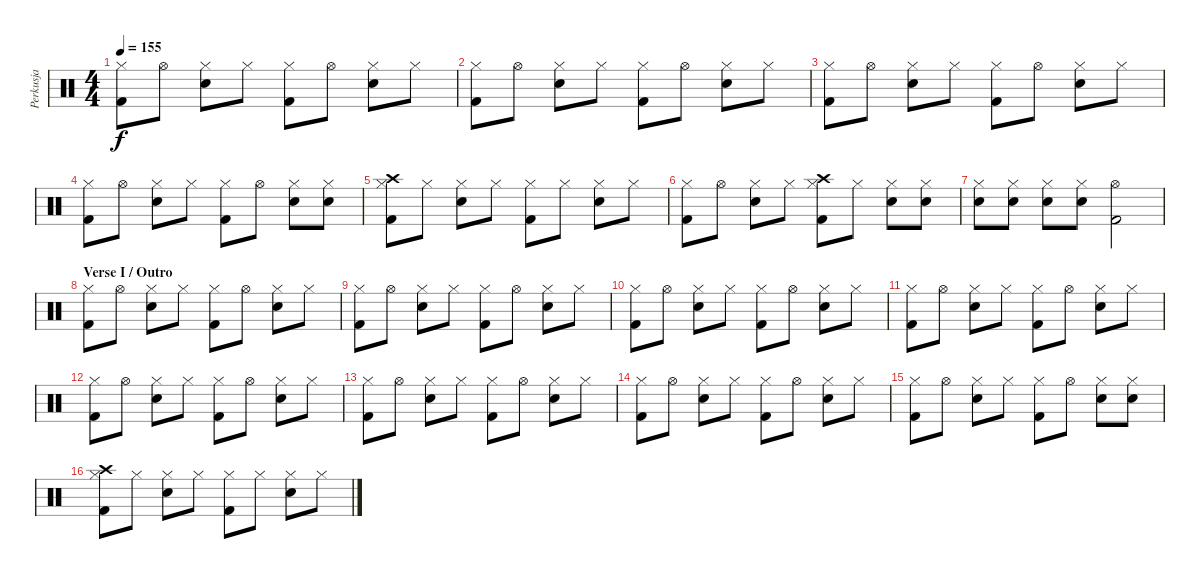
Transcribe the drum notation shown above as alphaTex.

\track ("Perkusja" "Perkusja") {instrument percussion}
\staff {score}
\articulation defaults
\ts (4 4)
\tempo 155
\clef neutral
\ks c
("Hi-Hat (closed)" "Kick (hit) 2").8{dy f} "Hi-Hat (open)".8 ("Hi-Hat (closed)" "Electric Snare (hit)").8 "Hi-Hat (closed)".8 ("Hi-Hat (closed)" "Kick (hit) 2").8 "Hi-Hat (open)".8 ("Hi-Hat (closed)" "Electric Snare (hit)").8 "Hi-Hat (closed)".8 |
("Hi-Hat (closed)" "Kick (hit) 2").8 "Hi-Hat (open)".8 ("Hi-Hat (closed)" "Electric Snare (hit)").8 "Hi-Hat (closed)".8 ("Hi-Hat (closed)" "Kick (hit) 2").8 "Hi-Hat (open)".8 ("Hi-Hat (closed)" "Electric Snare (hit)").8 "Hi-Hat (closed)".8 |
("Hi-Hat (closed)" "Kick (hit) 2").8 "Hi-Hat (open)".8 ("Hi-Hat (closed)" "Electric Snare (hit)").8 "Hi-Hat (closed)".8 ("Hi-Hat (closed)" "Kick (hit) 2").8 "Hi-Hat (open)".8 ("Hi-Hat (closed)" "Electric Snare (hit)").8 "Hi-Hat (closed)".8 |
("Hi-Hat (closed)" "Kick (hit) 2").8 "Hi-Hat (open)".8 ("Hi-Hat (closed)" "Electric Snare (hit)").8 "Hi-Hat (closed)".8 ("Hi-Hat (closed)" "Kick (hit) 2").8 "Hi-Hat (open)".8 ("Hi-Hat (closed)" "Electric Snare (hit)").8 ("Hi-Hat (closed)" "Electric Snare (hit)").8 |
("Hi-Hat (closed)" "Kick (hit) 2" "Crash high (hit)").8 "Hi-Hat (closed)".8 ("Hi-Hat (closed)" "Electric Snare (hit)").8 "Hi-Hat (closed)".8 ("Hi-Hat (closed)" "Kick (hit) 2").8 "Hi-Hat (closed)".8 ("Hi-Hat (closed)" "Electric Snare (hit)").8 "Hi-Hat (closed)".8 |
("Hi-Hat (closed)" "Kick (hit) 2").8 "Hi-Hat (open)".8 ("Hi-Hat (closed)" "Electric Snare (hit)").8 "Hi-Hat (closed)".8 ("Hi-Hat (closed)" "Kick (hit) 2" "Crash high (hit)").8 "Hi-Hat (closed)".8 ("Hi-Hat (closed)" "Electric Snare (hit)").8 ("Hi-Hat (closed)" "Electric Snare (hit)").8 |
("Hi-Hat (closed)" "Electric Snare (hit)").8 ("Hi-Hat (closed)" "Electric Snare (hit)").8 ("Hi-Hat (closed)" "Electric Snare (hit)").8 ("Hi-Hat (closed)" "Electric Snare (hit)").8 ("Kick (hit) 2" "Hi-Hat (open)").2 |
\section ("" "Verse I / Outro")
("Hi-Hat (closed)" "Kick (hit) 2").8 "Hi-Hat (open)".8 ("Hi-Hat (closed)" "Electric Snare (hit)").8 "Hi-Hat (closed)".8 ("Hi-Hat (closed)" "Kick (hit) 2").8 "Hi-Hat (open)".8 ("Hi-Hat (closed)" "Electric Snare (hit)").8 "Hi-Hat (closed)".8 |
("Hi-Hat (closed)" "Kick (hit) 2").8 "Hi-Hat (open)".8 ("Hi-Hat (closed)" "Electric Snare (hit)").8 "Hi-Hat (closed)".8 ("Hi-Hat (closed)" "Kick (hit) 2").8 "Hi-Hat (open)".8 ("Hi-Hat (closed)" "Electric Snare (hit)").8 "Hi-Hat (closed)".8 |
("Hi-Hat (closed)" "Kick (hit) 2").8 "Hi-Hat (open)".8 ("Hi-Hat (closed)" "Electric Snare (hit)").8 "Hi-Hat (closed)".8 ("Hi-Hat (closed)" "Kick (hit) 2").8 "Hi-Hat (open)".8 ("Hi-Hat (closed)" "Electric Snare (hit)").8 "Hi-Hat (closed)".8 |
("Hi-Hat (closed)" "Kick (hit) 2").8 "Hi-Hat (open)".8 ("Hi-Hat (closed)" "Electric Snare (hit)").8 "Hi-Hat (closed)".8 ("Hi-Hat (closed)" "Kick (hit) 2").8 "Hi-Hat (open)".8 ("Hi-Hat (closed)" "Electric Snare (hit)").8 "Hi-Hat (closed)".8 |
("Hi-Hat (closed)" "Kick (hit) 2").8 "Hi-Hat (open)".8 ("Hi-Hat (closed)" "Electric Snare (hit)").8 "Hi-Hat (closed)".8 ("Hi-Hat (closed)" "Kick (hit) 2").8 "Hi-Hat (open)".8 ("Hi-Hat (closed)" "Electric Snare (hit)").8 "Hi-Hat (closed)".8 |
("Hi-Hat (closed)" "Kick (hit) 2").8 "Hi-Hat (open)".8 ("Hi-Hat (closed)" "Electric Snare (hit)").8 "Hi-Hat (closed)".8 ("Hi-Hat (closed)" "Kick (hit) 2").8 "Hi-Hat (open)".8 ("Hi-Hat (closed)" "Electric Snare (hit)").8 "Hi-Hat (closed)".8 |
("Hi-Hat (closed)" "Kick (hit) 2").8 "Hi-Hat (open)".8 ("Hi-Hat (closed)" "Electric Snare (hit)").8 "Hi-Hat (closed)".8 ("Hi-Hat (closed)" "Kick (hit) 2").8 "Hi-Hat (open)".8 ("Hi-Hat (closed)" "Electric Snare (hit)").8 "Hi-Hat (closed)".8 |
("Hi-Hat (closed)" "Kick (hit) 2").8 "Hi-Hat (open)".8 ("Hi-Hat (closed)" "Electric Snare (hit)").8 "Hi-Hat (closed)".8 ("Hi-Hat (closed)" "Kick (hit) 2").8 "Hi-Hat (open)".8 ("Hi-Hat (closed)" "Electric Snare (hit)").8 ("Hi-Hat (closed)" "Electric Snare (hit)").8 |
("Hi-Hat (closed)" "Kick (hit) 2" "Crash high (hit)").8 "Hi-Hat (closed)".8 ("Hi-Hat (closed)" "Electric Snare (hit)").8 "Hi-Hat (closed)".8 ("Hi-Hat (closed)" "Kick (hit) 2").8 "Hi-Hat (closed)".8 ("Hi-Hat (closed)" "Electric Snare (hit)").8 "Hi-Hat (closed)".8
